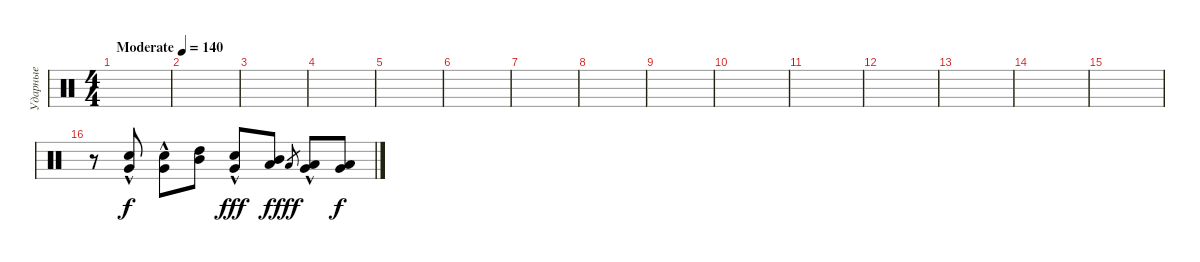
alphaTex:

\track ("Ударные" "Ударные") {instrument percussion}
\staff {score}
\articulation defaults
\ts (4 4)
\tempo (140 "Moderate")
\clef neutral
\ks c
|
|
|
|
|
|
|
|
|
|
|
|
|
|
|
r.8 ("Electric Snare (hit)"{hac} "Very Low Tom (hit)").8 ("Electric Snare (hit)"{hac} "Very Low Tom (hit)").8 ("High Tom (hit)" "Mid Tom (hit)").8{dy f} ("Electric Snare (hit)"{hac} "Very Low Tom (hit)").8{dy fff} ("Mid Tom (hit)" "Low Tom (hit)").8{dy f} "Low Tom (hit)".8{gr dy fff} ("Low Tom (hit)"{hac} "Very Low Tom (hit)").8 ("Low Floor Tom (hit)" "Very Low Tom (hit)").8{dy f}
